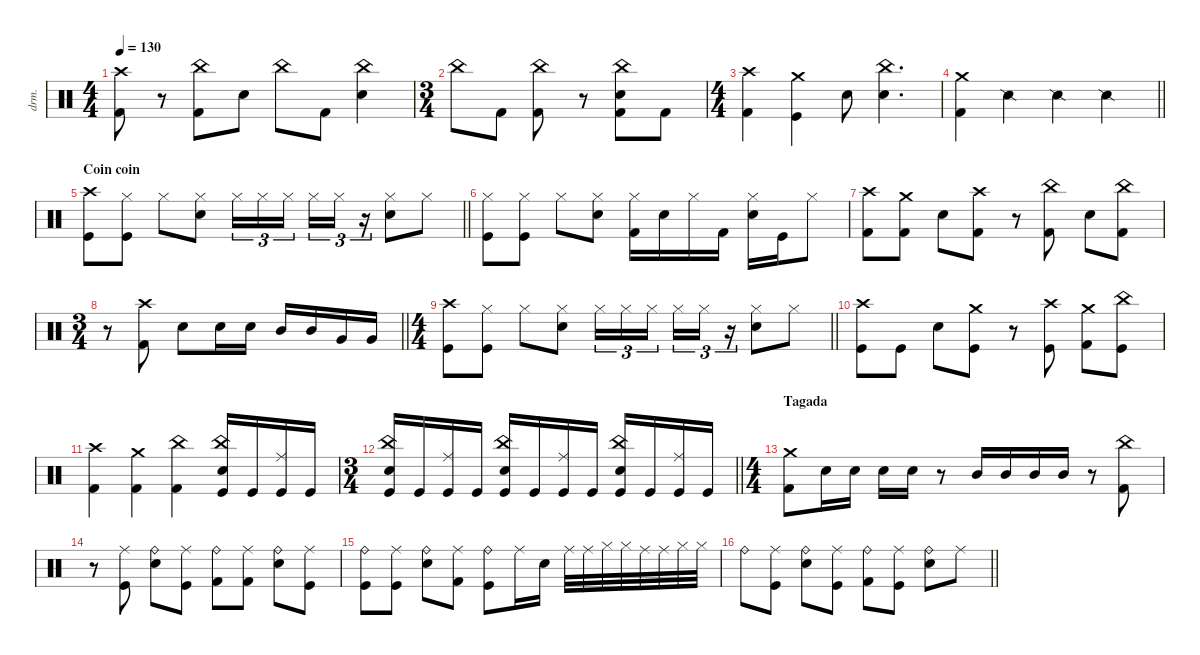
\defaultSystemsLayout 4
\hideDynamics
\bracketExtendMode nobrackets
\track ("Manouche" "drm.") {solo instrument percussion}
\staff {score}
\articulation defaults
\ts (4 4)
\tempo 130
\clef neutral
\ks c
("Crash high (hit)" "Kick (hit) 2").8{dy f beam Down} r.8{beam Down} ("China (hit)" "Kick (hit) 2").8{beam Down} "Snare (hit) 2".8{beam Down} "China (hit)".8{beam Down} "Kick (hit) 2".8{beam Down} ("China (hit)" "Snare (hit) 2").4{beam Down} |
\ts (3 4)
\beaming (8 2 2 2 2)
"China (hit)".8{beam Down} "Kick (hit) 2".8{beam Down} ("China (hit)" "Kick (hit) 2").8{beam Down} r.8{beam Down} ("China (hit)" "Snare (hit) 2" "Kick (hit) 2").8{beam Down} "Kick (hit) 2".8{beam Down} |
\ts (4 4)
\beaming (8 2 2 2 2)
("Kick (hit) 2" "Crash high (hit)").4{beam Down} ("Crash medium (hit)" "Kick (hit)").4{beam Down} "Snare (hit) 2".8{beam Down} ("China (hit)" "Snare (hit) 2").4{d beam Down} |
\barLineRight lightlight
("Kick (hit) 2" "Crash medium (hit)").4{beam Down} "Snare (side stick) 2".4{beam Down} "Snare (side stick) 2".4{beam Down} "Snare (side stick) 2".4{beam Down} |
\section ("" "Coin coin")
\barLineRight lightlight
("Crash high (hit)" "Kick (hit)").8{beam Down} ("Hi-Hat (closed)" "Kick (hit)").8{beam Down} "Hi-Hat (closed)".8{beam Down} ("Hi-Hat (closed)" "Snare (hit) 2").8{beam Down} "Hi-Hat (closed)".16{tu (3 2) dy mp beam Down} "Hi-Hat (closed)".16{tu (3 2) beam Down} "Hi-Hat (closed)".16{tu (3 2) beam Down} "Hi-Hat (closed)".16{tu (3 2) beam Down} "Hi-Hat (closed)".16{tu (3 2) beam Down} r.16{tu (3 2) beam Down} ("Snare (hit) 2" "Hi-Hat (closed)").8{dy f beam Down} "Hi-Hat (closed)".8{beam Down} |
("Hi-Hat (closed)" "Kick (hit)").8{beam Down} ("Hi-Hat (closed)" "Kick (hit)").8{beam Down} "Hi-Hat (closed)".8{beam Down} ("Hi-Hat (closed)" "Snare (hit) 2").8{beam Down} ("Hi-Hat (closed)" "Kick (hit) 2").16{beam Down} "Snare (hit) 2".16{beam Down} "Hi-Hat (closed)".16{beam Down} "Kick (hit) 2".16{beam Down} ("Hi-Hat (closed)" "Snare (hit) 2").16{beam Down} "Kick (hit)".16{beam Down} "Hi-Hat (closed)".8{beam Down} |
("Crash high (hit)" "Kick (hit) 2").8{beam Down} ("Crash medium (hit)" "Kick (hit) 2").8{beam Down} "Snare (hit) 2".8{beam Down} ("Kick (hit) 2" "Crash high (hit)").8{beam Down} r.8{beam Down} ("Kick (hit) 2" "China (hit)").8{beam Down} "Snare (hit) 2".8{beam Down} ("Kick (hit) 2" "China (hit)").8{beam Down} |
\ts (3 4)
\beaming (8 2 2 2)
\barLineRight lightlight
r.8{beam Down} ("Crash high (hit)" "Kick (hit) 2").8{beam Down} "Snare (hit) 2".8{beam Down} "Snare (hit) 2".16{beam Down} "Snare (hit) 2".16{beam Down} "Mid Tom (hit)".16{beam Up} "Mid Tom (hit)".16{beam Up} "Very Low Tom (hit)".16{beam Up} "Very Low Tom (hit)".16{beam Up} |
\ts (4 4)
\beaming (8 2 2 2 2)
\barLineRight lightlight
("Crash high (hit)" "Kick (hit)").8{beam Down} ("Hi-Hat (closed)" "Kick (hit)").8{beam Down} "Hi-Hat (closed)".8{beam Down} ("Hi-Hat (closed)" "Snare (hit) 2").8{beam Down} "Hi-Hat (closed)".16{tu (3 2) dy mf beam Down} "Hi-Hat (closed)".16{tu (3 2) dy mp beam Down} "Hi-Hat (closed)".16{tu (3 2) dy mf beam Down} "Hi-Hat (closed)".16{tu (3 2) beam Down} "Hi-Hat (closed)".16{tu (3 2) dy mp beam Down} r.16{tu (3 2) beam Down} ("Snare (hit) 2" "Hi-Hat (closed)").8{dy f beam Down} "Hi-Hat (closed)".8{beam Down} |
("Crash high (hit)" "Kick (hit)").8{beam Down} "Kick (hit)".8{beam Down} "Snare (hit) 2".8{beam Down} ("Crash medium (hit)" "Kick (hit)").8{beam Down} r.8{beam Down} ("Crash high (hit)" "Kick (hit)").8{beam Down} ("Kick (hit) 2" "Crash medium (hit)").8{beam Down} ("China (hit)" "Kick (hit)").8{beam Down} |
("Kick (hit) 2" "Crash high (hit)").4{beam Down} ("Crash medium (hit)" "Kick (hit) 2").4{beam Down} ("China (hit)" "Kick (hit) 2").4{beam Down} ("China (hit)" "Snare (hit) 2" "Kick (hit)").16{beam Up} "Kick (hit)".16{beam Up} ("Ride (middle)" "Kick (hit)").16{beam Up} "Kick (hit)".16{beam Up} |
\ts (3 4)
\beaming (8 2 2 2)
\barLineRight lightlight
("China (hit)" "Snare (hit) 2" "Kick (hit)").16{beam Up} "Kick (hit)".16{beam Up} ("Ride (middle)" "Kick (hit)").16{beam Up} "Kick (hit)".16{beam Up} ("China (hit)" "Snare (hit) 2" "Kick (hit)").16{beam Up} "Kick (hit)".16{beam Up} ("Ride (middle)" "Kick (hit)").16{beam Up} "Kick (hit)".16{beam Up} ("China (hit)" "Snare (hit) 2" "Kick (hit)").16{beam Up} "Kick (hit)".16{beam Up} ("Kick (hit)" "Ride (middle)").16{beam Up} "Kick (hit)".16{beam Up} |
\ts (4 4)
\beaming (8 2 2 2 2)
\section ("" "Tagada")
("Crash medium (hit)" "Kick (hit) 2").8{beam Down} "Snare (hit) 2".16{beam Down} "Snare (hit) 2".16{beam Down} "Snare (hit) 2".16{beam Down} "Snare (hit) 2".16{beam Down} r.8{beam Down} "Mid Tom (hit)".16{beam Up} "Mid Tom (hit)".16{beam Up} "Mid Tom (hit)".16{beam Up} "Mid Tom (hit)".16{beam Up} r.8{beam Down} ("China (hit)" "Kick (hit) 2").8{beam Down} |
r.8{beam Down} ("Ride (middle)" "Kick (hit)").8{dy mp beam Down} ("Snare (hit) 2" "Ride (bell)").8{dy f beam Down} ("Kick (hit)" "Ride (middle)").8{beam Down} ("Ride (bell)" "Kick (hit) 2").8{beam Down} ("Ride (middle)" "Kick (hit) 2").8{dy mp beam Down} ("Ride (bell)" "Snare (hit) 2").8{dy f beam Down} ("Ride (middle)" "Kick (hit)").8{dy mp beam Down} |
("Kick (hit)" "Ride (bell)").8{dy f beam Down} ("Kick (hit)" "Ride (middle)").8{beam Down} ("Ride (bell)" "Snare (hit) 2").8{beam Down} ("Ride (middle)" "Kick (hit) 2").8{dy mp beam Down} ("Ride (bell)" "Kick (hit)").8{dy f beam Down} "Ride (middle)".16{dy mp beam Down} "Snare (hit) 2".16{dy f beam Down} "Ride (middle)".32{beam Down} "Ride (middle)".32{beam Down} "Hi-Hat (closed)".32{beam Down} "Hi-Hat (closed)".32{beam Down} "Ride (middle)".32{beam Down} "Ride (middle)".32{beam Down} "Hi-Hat (closed)".32{beam Down} "Hi-Hat (closed)".32{beam Down} |
\barLineRight lightlight "Ride (bell)".8{beam Down}
("Kick (hit)" "Ride (middle)").8{beam Down} ("Snare (hit) 2" "Ride (bell)").8{beam Down} ("Ride (middle)" "Kick (hit)").8{dy mp beam Down} ("Ride (bell)" "Kick (hit) 2").8{dy f beam Down} ("Ride (middle)" "Kick (hit)").8{dy mp beam Down} ("Snare (hit) 2" "Ride (bell)").8{dy f beam Down} "Ride (middle)".8{dy mp beam Down}
